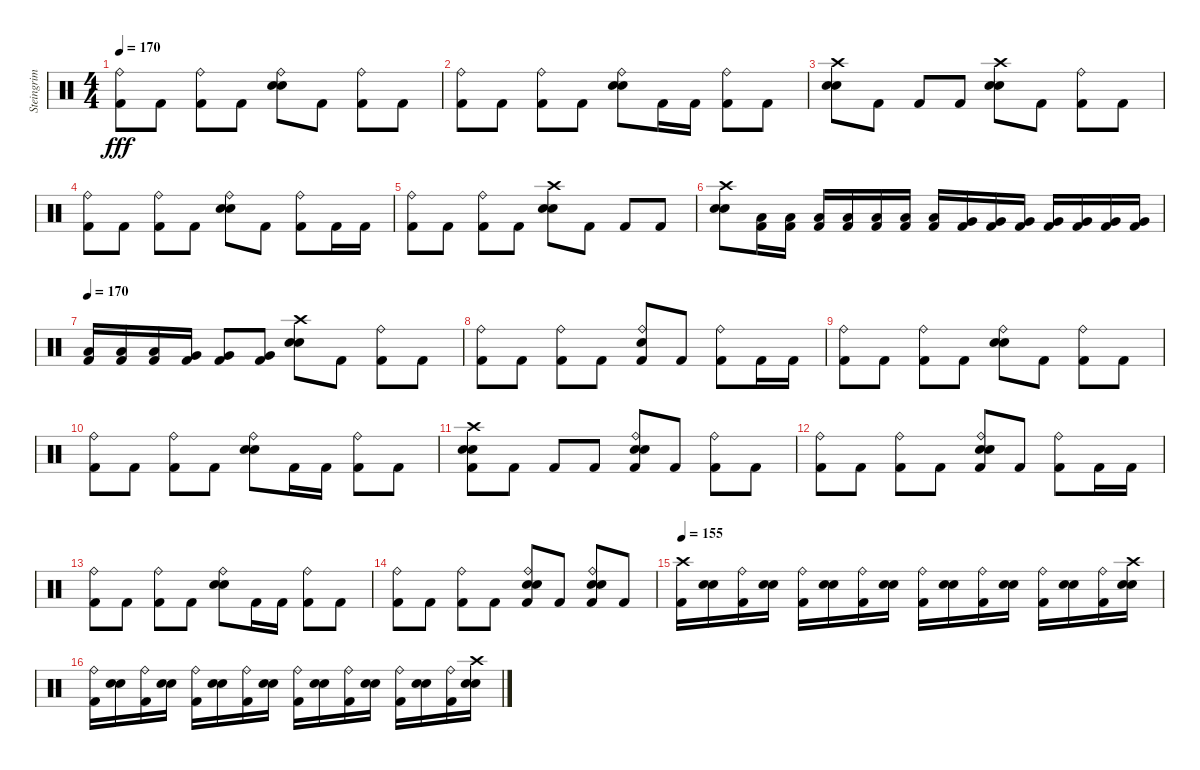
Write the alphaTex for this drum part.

\track ("Steingrim" "Steingrim") {instrument percussion}
\staff {score}
\articulation defaults
\ts (4 4)
\tempo 170
\clef neutral
\ks c
("Kick (hit) 2" "Ride (bell)").8{dy fff} "Kick (hit) 2".8 ("Kick (hit) 2" "Ride (bell)").8 "Kick (hit) 2".8 ("Snare (hit) 2" "Electric Snare (hit)" "Ride (bell)").8 "Kick (hit) 2".8 ("Kick (hit) 2" "Ride (bell)").8 "Kick (hit) 2".8 |
("Kick (hit) 2" "Ride (bell)").8 "Kick (hit) 2".8 ("Kick (hit) 2" "Ride (bell)").8 "Kick (hit) 2".8 ("Snare (hit) 2" "Electric Snare (hit)" "Ride (bell)").8 "Kick (hit) 2".16 "Kick (hit) 2".16 ("Kick (hit) 2" "Ride (bell)").8 "Kick (hit) 2".8 |
("Snare (hit) 2" "Electric Snare (hit)" "Crash high (hit)").8 "Kick (hit) 2".8 "Kick (hit) 2".8 "Kick (hit) 2".8 ("Snare (hit) 2" "Electric Snare (hit)" "Crash high (hit)").8 "Kick (hit) 2".8 ("Kick (hit) 2" "Ride (bell)").8 "Kick (hit) 2".8 |
("Kick (hit) 2" "Ride (bell)").8 "Kick (hit) 2".8 ("Kick (hit) 2" "Ride (bell)").8 "Kick (hit) 2".8 ("Electric Snare (hit)" "Snare (hit) 2" "Ride (bell)").8 "Kick (hit) 2".8 ("Kick (hit) 2" "Ride (bell)").8 "Kick (hit) 2".16 "Kick (hit) 2".16 |
("Kick (hit) 2" "Ride (bell)").8 "Kick (hit) 2".8 ("Kick (hit) 2" "Ride (bell)").8 "Kick (hit) 2".8 ("Snare (hit) 2" "Electric Snare (hit)" "Crash high (hit)").8 "Kick (hit) 2".8 "Kick (hit) 2".8 "Kick (hit) 2".8 |
("Snare (hit) 2" "Electric Snare (hit)" "Crash high (hit)").8 ("Kick (hit) 2" "Low Tom (hit)").16 ("Kick (hit) 2" "Low Tom (hit)").16 ("Kick (hit) 2" "Low Tom (hit)").16 ("Kick (hit) 2" "Low Tom (hit)").16 ("Kick (hit) 2" "Low Tom (hit)").16 ("Kick (hit) 2" "Low Tom (hit)").16 ("Kick (hit) 2" "Low Tom (hit)").16 ("Kick (hit) 2" "Very Low Tom (hit)").16 ("Kick (hit) 2" "Very Low Tom (hit)").16 ("Kick (hit) 2" "Very Low Tom (hit)").16 ("Kick (hit) 2" "Very Low Tom (hit)").16 ("Kick (hit) 2" "Very Low Tom (hit)").16 ("Kick (hit) 2" "Very Low Tom (hit)").16 ("Kick (hit) 2" "Very Low Tom (hit)").16 |
\tempo 170
("Kick (hit) 2" "Low Floor Tom (hit)").16 ("Kick (hit) 2" "Low Floor Tom (hit)").16 ("Kick (hit) 2" "Low Floor Tom (hit)").16 ("Kick (hit) 2" "Very Low Tom (hit)").16 ("Kick (hit) 2" "Very Low Tom (hit)").8 ("Kick (hit) 2" "Very Low Tom (hit)").8 ("Snare (hit) 2" "Electric Snare (hit)" "Crash high (hit)").8 "Kick (hit) 2".8 ("Kick (hit) 2" "Ride (bell)").8 "Kick (hit) 2".8 |
("Kick (hit) 2" "Ride (bell)").8 "Kick (hit) 2".8 ("Kick (hit) 2" "Ride (bell)").8 "Kick (hit) 2".8 ("Kick (hit) 2" "Snare (hit) 2" "Ride (bell)").8 "Kick (hit) 2".8 ("Kick (hit) 2" "Ride (bell)").8 "Kick (hit) 2".16 "Kick (hit) 2".16 |
("Kick (hit) 2" "Ride (bell)").8 "Kick (hit) 2".8 ("Kick (hit) 2" "Ride (bell)").8 "Kick (hit) 2".8 ("Snare (hit) 2" "Electric Snare (hit)" "Ride (bell)").8 "Kick (hit) 2".8 ("Kick (hit) 2" "Ride (bell)").8 "Kick (hit) 2".8 |
("Kick (hit) 2" "Ride (bell)").8 "Kick (hit) 2".8 ("Kick (hit) 2" "Ride (bell)").8 "Kick (hit) 2".8 ("Snare (hit) 2" "Electric Snare (hit)" "Ride (bell)").8 "Kick (hit) 2".16 "Kick (hit) 2".16 ("Kick (hit) 2" "Ride (bell)").8 "Kick (hit) 2".8 |
("Kick (hit) 2" "Snare (hit) 2" "Electric Snare (hit)" "Crash high (hit)").8 "Kick (hit) 2".8 "Kick (hit) 2".8 "Kick (hit) 2".8 ("Kick (hit) 2" "Snare (hit) 2" "Electric Snare (hit)" "Ride (bell)").8 "Kick (hit) 2".8 ("Kick (hit) 2" "Ride (bell)").8 "Kick (hit) 2".8 |
("Kick (hit) 2" "Ride (bell)").8 "Kick (hit) 2".8 ("Kick (hit) 2" "Ride (bell)").8 "Kick (hit) 2".8 ("Kick (hit) 2" "Snare (hit) 2" "Electric Snare (hit)" "Ride (bell)").8 "Kick (hit) 2".8 ("Kick (hit) 2" "Ride (bell)").8 "Kick (hit) 2".16 "Kick (hit) 2".16 |
("Kick (hit) 2" "Ride (bell)").8 "Kick (hit) 2".8 ("Kick (hit) 2" "Ride (bell)").8 "Kick (hit) 2".8 ("Snare (hit) 2" "Electric Snare (hit)" "Ride (bell)").8 "Kick (hit) 2".16 "Kick (hit) 2".16 ("Kick (hit) 2" "Ride (bell)").8 "Kick (hit) 2".8 |
("Kick (hit) 2" "Ride (bell)").8 "Kick (hit) 2".8 ("Kick (hit) 2" "Ride (bell)").8 "Kick (hit) 2".8 ("Kick (hit) 2" "Snare (hit) 2" "Electric Snare (hit)" "Ride (bell)").8 "Kick (hit) 2".8 ("Kick (hit) 2" "Snare (hit) 2" "Electric Snare (hit)" "Ride (bell)").8 "Kick (hit) 2".8 |
\tempo 155
("Kick (hit) 2" "Crash high (hit)").16 ("Snare (hit) 2" "Electric Snare (hit)").16 ("Kick (hit) 2" "Ride (bell)").16 ("Snare (hit) 2" "Electric Snare (hit)").16 ("Kick (hit) 2" "Ride (bell)").16 ("Snare (hit) 2" "Electric Snare (hit)").16 ("Kick (hit) 2" "Ride (bell)").16 ("Snare (hit) 2" "Electric Snare (hit)").16 ("Kick (hit) 2" "Ride (bell)").16 ("Snare (hit) 2" "Electric Snare (hit)").16 ("Kick (hit) 2" "Ride (bell)").16 ("Snare (hit) 2" "Electric Snare (hit)").16 ("Kick (hit) 2" "Ride (bell)").16 ("Snare (hit) 2" "Electric Snare (hit)").16 ("Kick (hit) 2" "Ride (bell)").16 ("Snare (hit) 2" "Electric Snare (hit)" "Crash high (hit)").16 |
("Kick (hit) 2" "Ride (bell)").16 ("Snare (hit) 2" "Electric Snare (hit)").16 ("Kick (hit) 2" "Ride (bell)").16 ("Snare (hit) 2" "Electric Snare (hit)").16 ("Kick (hit) 2" "Ride (bell)").16 ("Snare (hit) 2" "Electric Snare (hit)").16 ("Kick (hit) 2" "Ride (bell)").16 ("Snare (hit) 2" "Electric Snare (hit)").16 ("Kick (hit) 2" "Ride (bell)").16 ("Snare (hit) 2" "Electric Snare (hit)").16 ("Kick (hit) 2" "Ride (bell)").16 ("Snare (hit) 2" "Electric Snare (hit)").16 ("Kick (hit) 2" "Ride (bell)").16 ("Snare (hit) 2" "Electric Snare (hit)").16 ("Kick (hit) 2" "Ride (bell)").16 ("Snare (hit) 2" "Electric Snare (hit)" "Crash high (hit)").16
